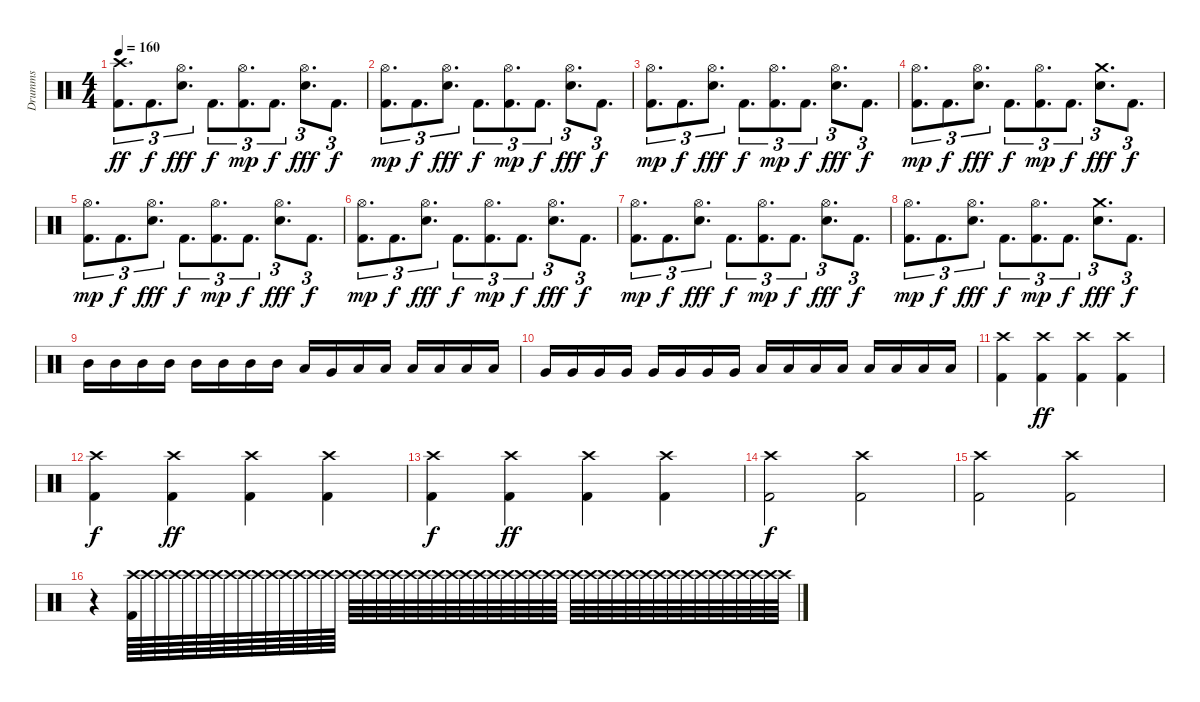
\track ("Drumms" "Drumms") {instrument percussion}
\staff {score}
\articulation defaults
\ts (4 4)
\tempo 160
\clef neutral
\ks c
("Crash high (hit)" "Kick (hit) 2").8{d tu (3 2) dy ff} "Kick (hit) 2".8{d tu (3 2) dy f} ("Hi-Hat (open)" "Electric Snare (hit)").8{d tu (3 2) dy fff} "Kick (hit) 2".8{d tu (3 2) dy f} ("Hi-Hat (open)" "Kick (hit) 2").8{d tu (3 2) dy mp} "Kick (hit) 2".8{d tu (3 2) dy f} ("Hi-Hat (open)" "Electric Snare (hit)").8{d tu (3 2) dy fff} "Kick (hit) 2".8{d tu (3 2) dy f} |
("Hi-Hat (open)" "Kick (hit) 2").8{d tu (3 2) dy mp} "Kick (hit) 2".8{d tu (3 2) dy f} ("Hi-Hat (open)" "Electric Snare (hit)").8{d tu (3 2) dy fff} "Kick (hit) 2".8{d tu (3 2) dy f} ("Hi-Hat (open)" "Kick (hit) 2").8{d tu (3 2) dy mp} "Kick (hit) 2".8{d tu (3 2) dy f} ("Hi-Hat (open)" "Electric Snare (hit)").8{d tu (3 2) dy fff} "Kick (hit) 2".8{d tu (3 2) dy f} |
("Hi-Hat (open)" "Kick (hit) 2").8{d tu (3 2) dy mp} "Kick (hit) 2".8{d tu (3 2) dy f} ("Hi-Hat (open)" "Electric Snare (hit)").8{d tu (3 2) dy fff} "Kick (hit) 2".8{d tu (3 2) dy f} ("Hi-Hat (open)" "Kick (hit) 2").8{d tu (3 2) dy mp} "Kick (hit) 2".8{d tu (3 2) dy f} ("Hi-Hat (open)" "Electric Snare (hit)").8{d tu (3 2) dy fff} "Kick (hit) 2".8{d tu (3 2) dy f} |
("Hi-Hat (open)" "Kick (hit) 2").8{d tu (3 2) dy mp} "Kick (hit) 2".8{d tu (3 2) dy f} ("Hi-Hat (open)" "Electric Snare (hit)").8{d tu (3 2) dy fff} "Kick (hit) 2".8{d tu (3 2) dy f} ("Hi-Hat (open)" "Kick (hit) 2").8{d tu (3 2) dy mp} "Kick (hit) 2".8{d tu (3 2) dy f} ("Crash medium (hit)" "Electric Snare (hit)").8{d tu (3 2) dy fff} "Kick (hit) 2".8{d tu (3 2) dy f} |
("Hi-Hat (open)" "Kick (hit) 2").8{d tu (3 2) dy mp} "Kick (hit) 2".8{d tu (3 2) dy f} ("Hi-Hat (open)" "Electric Snare (hit)").8{d tu (3 2) dy fff} "Kick (hit) 2".8{d tu (3 2) dy f} ("Hi-Hat (open)" "Kick (hit) 2").8{d tu (3 2) dy mp} "Kick (hit) 2".8{d tu (3 2) dy f} ("Hi-Hat (open)" "Electric Snare (hit)").8{d tu (3 2) dy fff} "Kick (hit) 2".8{d tu (3 2) dy f} |
("Hi-Hat (open)" "Kick (hit) 2").8{d tu (3 2) dy mp} "Kick (hit) 2".8{d tu (3 2) dy f} ("Hi-Hat (open)" "Electric Snare (hit)").8{d tu (3 2) dy fff} "Kick (hit) 2".8{d tu (3 2) dy f} ("Hi-Hat (open)" "Kick (hit) 2").8{d tu (3 2) dy mp} "Kick (hit) 2".8{d tu (3 2) dy f} ("Hi-Hat (open)" "Electric Snare (hit)").8{d tu (3 2) dy fff} "Kick (hit) 2".8{d tu (3 2) dy f} |
("Hi-Hat (open)" "Kick (hit) 2").8{d tu (3 2) dy mp} "Kick (hit) 2".8{d tu (3 2) dy f} ("Hi-Hat (open)" "Electric Snare (hit)").8{d tu (3 2) dy fff} "Kick (hit) 2".8{d tu (3 2) dy f} ("Hi-Hat (open)" "Kick (hit) 2").8{d tu (3 2) dy mp} "Kick (hit) 2".8{d tu (3 2) dy f} ("Hi-Hat (open)" "Electric Snare (hit)").8{d tu (3 2) dy fff} "Kick (hit) 2".8{d tu (3 2) dy f} |
("Hi-Hat (open)" "Kick (hit) 2").8{d tu (3 2) dy mp} "Kick (hit) 2".8{d tu (3 2) dy f} ("Hi-Hat (open)" "Electric Snare (hit)").8{d tu (3 2) dy fff} "Kick (hit) 2".8{d tu (3 2) dy f} ("Hi-Hat (open)" "Kick (hit) 2").8{d tu (3 2) dy mp} "Kick (hit) 2".8{d tu (3 2) dy f} ("Crash medium (hit)" "Electric Snare (hit)").8{d tu (3 2) dy fff} "Kick (hit) 2".8{d tu (3 2) dy f} |
\section ("" "")
"Mid Tom (hit)".16 "Mid Tom (hit)".16 "Mid Tom (hit)".16 "Mid Tom (hit)".16 "Mid Tom (hit)".16 "Mid Tom (hit)".16 "Mid Tom (hit)".16 "Mid Tom (hit)".16 "Low Tom (hit)".16 "Very Low Tom (hit)".16 "Low Tom (hit)".16 "Low Tom (hit)".16 "Low Tom (hit)".16 "Low Tom (hit)".16 "Low Tom (hit)".16 "Low Tom (hit)".16 |
"Very Low Tom (hit)".16 "Very Low Tom (hit)".16 "Very Low Tom (hit)".16 "Very Low Tom (hit)".16 "Very Low Tom (hit)".16 "Very Low Tom (hit)".16 "Very Low Tom (hit)".16 "Very Low Tom (hit)".16 "Low Floor Tom (hit)".16 "Low Floor Tom (hit)".16 "Low Floor Tom (hit)".16 "Low Floor Tom (hit)".16 "Low Floor Tom (hit)".16 "Low Floor Tom (hit)".16 "Low Floor Tom (hit)".16 "Low Floor Tom (hit)".16 |
("Crash high (hit)" "Kick (hit) 2").4 ("Crash high (hit)" "Kick (hit) 2").4{dy ff} ("Crash high (hit)" "Kick (hit) 2").4 ("Crash high (hit)" "Kick (hit) 2").4 |
("Crash high (hit)" "Kick (hit) 2").4{dy f} ("Crash high (hit)" "Kick (hit) 2").4{dy ff} ("Crash high (hit)" "Kick (hit) 2").4 ("Crash high (hit)" "Kick (hit) 2").4 |
("Crash high (hit)" "Kick (hit) 2").4{dy f} ("Crash high (hit)" "Kick (hit) 2").4{dy ff} ("Crash high (hit)" "Kick (hit) 2").4 ("Crash high (hit)" "Kick (hit) 2").4 |
("Crash high (hit)" "Kick (hit) 2").2{dy f} ("Crash high (hit)" "Kick (hit) 2").2 |
("Crash high (hit)" "Kick (hit) 2").2 ("Crash high (hit)" "Kick (hit) 2").2 |
r.4 ("Crash high (hit)" "Kick (hit) 2").64{volume 0} "Crash high (hit)".64 "Crash high (hit)".64 "Crash high (hit)".64 "Crash high (hit)".64 "Crash high (hit)".64 "Crash high (hit)".64 "Crash high (hit)".64 "Crash high (hit)".64 "Crash high (hit)".64 "Crash high (hit)".64 "Crash high (hit)".64 "Crash high (hit)".64 "Crash high (hit)".64 "Crash high (hit)".64 "Crash high (hit)".64 "Crash high (hit)".64 "Crash high (hit)".64 "Crash high (hit)".64 "Crash high (hit)".64 "Crash high (hit)".64 "Crash high (hit)".64 "Crash high (hit)".64 "Crash high (hit)".64 "Crash high (hit)".64 "Crash high (hit)".64 "Crash high (hit)".64 "Crash high (hit)".64 "Crash high (hit)".64 "Crash high (hit)".64 "Crash high (hit)".64 "Crash high (hit)".64 "Crash high (hit)".64 "Crash high (hit)".64 "Crash high (hit)".64 "Crash high (hit)".64 "Crash high (hit)".64 "Crash high (hit)".64 "Crash high (hit)".64 "Crash high (hit)".64 "Crash high (hit)".64 "Crash high (hit)".64 "Crash high (hit)".64 "Crash high (hit)".64 "Crash high (hit)".64 "Crash high (hit)".64 "Crash high (hit)".64 "Crash high (hit)".64
